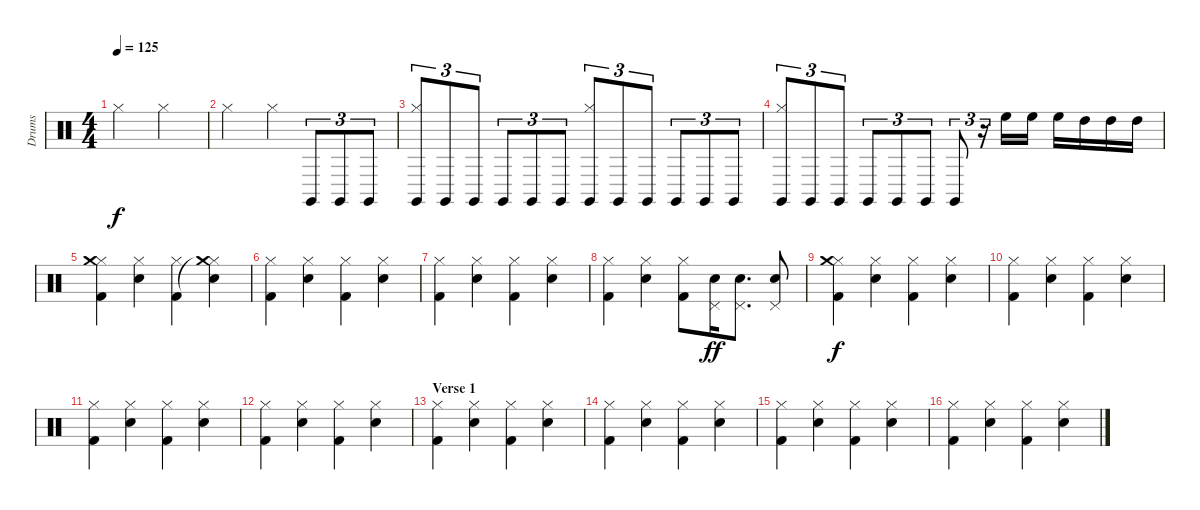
\track ("Drums" "Drums") {instrument percussion}
\staff {score}
\articulation defaults
\ts (4 4)
\tempo 125
\clef neutral
\ks c "Hi-Hat (closed)".2{dy f} "Hi-Hat (closed)".2
|
"Hi-Hat (closed)".2 "Hi-Hat (closed)".4 "Claves (hit)".8{tu (3 2)} "Claves (hit)".8{tu (3 2)} "Claves (hit)".8{tu (3 2)} |
("Claves (hit)" "Hi-Hat (closed)").8{tu (3 2)} "Claves (hit)".8{tu (3 2)} "Claves (hit)".8{tu (3 2)} "Claves (hit)".8{tu (3 2)} "Claves (hit)".8{tu (3 2)} "Claves (hit)".8{tu (3 2)} ("Claves (hit)" "Hi-Hat (closed)").8{tu (3 2)} "Claves (hit)".8{tu (3 2)} "Claves (hit)".8{tu (3 2)} "Claves (hit)".8{tu (3 2)} "Claves (hit)".8{tu (3 2)} "Claves (hit)".8{tu (3 2)} |
("Claves (hit)" "Hi-Hat (closed)").8{tu (3 2)} "Claves (hit)".8{tu (3 2)} "Claves (hit)".8{tu (3 2)} "Claves (hit)".8{tu (3 2)} "Claves (hit)".8{tu (3 2)} "Claves (hit)".8{tu (3 2)} "Claves (hit)".8{tu (3 2)} r.16{tu (3 2)} "High Floor Tom (hit)".16 "High Floor Tom (hit)".16 "High Floor Tom (hit)".16 "High Tom (hit)".16 "High Tom (hit)".16 "High Tom (hit)".16 |
("Hi-Hat (closed)" "Crash medium (hit)" "Kick (hit) 2").4 ("Hi-Hat (closed)" "Electric Snare (hit)").4 ("Hi-Hat (closed)" "Kick (hit) 2").4 ("Hi-Hat (closed)" "Crash medium (hit)"{t} "Electric Snare (hit)").4 |
("Hi-Hat (closed)" "Kick (hit) 2").4 ("Hi-Hat (closed)" "Electric Snare (hit)").4 ("Hi-Hat (closed)" "Kick (hit) 2").4 ("Hi-Hat (closed)" "Electric Snare (hit)").4 |
("Hi-Hat (closed)" "Kick (hit) 2").4 ("Hi-Hat (closed)" "Electric Snare (hit)").4 ("Hi-Hat (closed)" "Kick (hit) 2").4 ("Hi-Hat (closed)" "Electric Snare (hit)").4 |
("Hi-Hat (closed)" "Kick (hit) 2").4 ("Hi-Hat (closed)" "Electric Snare (hit)").4 ("Hi-Hat (closed)" "Kick (hit) 2").8 ("Pedal Hi-Hat (hit)" "Electric Snare (hit)").16{dy ff} ("Pedal Hi-Hat (hit)" "Electric Snare (hit)").8{d} ("Pedal Hi-Hat (hit)" "Electric Snare (hit)").8 |
("Hi-Hat (closed)" "Crash medium (hit)" "Kick (hit) 2").4{dy f} ("Hi-Hat (closed)" "Electric Snare (hit)").4 ("Hi-Hat (closed)" "Kick (hit) 2").4 ("Hi-Hat (closed)" "Electric Snare (hit)").4 |
("Hi-Hat (closed)" "Kick (hit) 2").4 ("Hi-Hat (closed)" "Electric Snare (hit)").4 ("Hi-Hat (closed)" "Kick (hit) 2").4 ("Hi-Hat (closed)" "Electric Snare (hit)").4 |
("Hi-Hat (closed)" "Kick (hit) 2").4 ("Hi-Hat (closed)" "Electric Snare (hit)").4 ("Hi-Hat (closed)" "Kick (hit) 2").4 ("Hi-Hat (closed)" "Electric Snare (hit)").4 |
("Hi-Hat (closed)" "Kick (hit) 2").4 ("Hi-Hat (closed)" "Electric Snare (hit)").4 ("Hi-Hat (closed)" "Kick (hit) 2").4 ("Hi-Hat (closed)" "Electric Snare (hit)").4 |
\section ("" "Verse 1")
("Hi-Hat (closed)" "Kick (hit) 2").4 ("Hi-Hat (closed)" "Electric Snare (hit)").4 ("Hi-Hat (closed)" "Kick (hit) 2").4 ("Hi-Hat (closed)" "Electric Snare (hit)").4 |
("Hi-Hat (closed)" "Kick (hit) 2").4 ("Hi-Hat (closed)" "Electric Snare (hit)").4 ("Hi-Hat (closed)" "Kick (hit) 2").4 ("Hi-Hat (closed)" "Electric Snare (hit)").4 |
("Hi-Hat (closed)" "Kick (hit) 2").4 ("Hi-Hat (closed)" "Electric Snare (hit)").4 ("Hi-Hat (closed)" "Kick (hit) 2").4 ("Hi-Hat (closed)" "Electric Snare (hit)").4 |
("Hi-Hat (closed)" "Kick (hit) 2").4 ("Hi-Hat (closed)" "Electric Snare (hit)").4 ("Hi-Hat (closed)" "Kick (hit) 2").4 ("Hi-Hat (closed)" "Electric Snare (hit)").4
